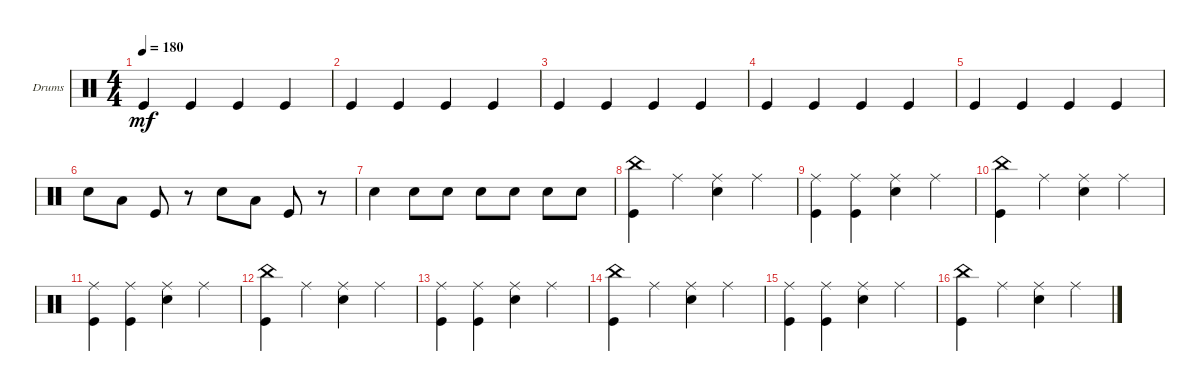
\defaultSystemsLayout 4
\bracketExtendMode groupsimilarinstruments
\firstSystemTrackNameOrientation horizontal
\otherSystemsTrackNameOrientation horizontal
\track ("Drumkit" "Drums") {instrument percussion}
\staff {score}
\articulation defaults
\ts (4 4)
\tempo 180
\clef neutral
\ks c "Kick (hit)".4{dy mf} "Kick (hit)".4 "Kick (hit)".4 "Kick (hit)".4
|
"Kick (hit)".4 "Kick (hit)".4 "Kick (hit)".4 "Kick (hit)".4 |
"Kick (hit)".4 "Kick (hit)".4 "Kick (hit)".4 "Kick (hit)".4 |
"Kick (hit)".4 "Kick (hit)".4 "Kick (hit)".4 "Kick (hit)".4 |
"Kick (hit)".4 "Kick (hit)".4 "Kick (hit)".4 "Kick (hit)".4 |
"Snare (hit) 2".8 "Low Tom (hit)".8 "Kick (hit)".8 r.8 "Snare (hit) 2".8 "Low Tom (hit)".8 "Kick (hit)".8 r.8 |
"Snare (hit) 2".4 "Snare (hit) 2".8 "Snare (hit) 2".8 "Snare (hit) 2".8 "Snare (hit) 2".8 "Snare (hit) 2".8 "Snare (hit) 2".8 |
("Kick (hit)" "China (hit)").4 "Ride (middle)".4 ("Ride (middle)" "Snare (hit) 2").4 "Ride (middle)".4 |
("Ride (middle)" "Kick (hit)").4 ("Ride (middle)" "Kick (hit)").4 ("Ride (middle)" "Snare (hit) 2").4 "Ride (middle)".4 |
("Kick (hit)" "China (hit)").4 "Ride (middle)".4 ("Ride (middle)" "Snare (hit) 2").4 "Ride (middle)".4 |
("Ride (middle)" "Kick (hit)").4 ("Ride (middle)" "Kick (hit)").4 ("Ride (middle)" "Snare (hit) 2").4 "Ride (middle)".4 |
("Kick (hit)" "China (hit)").4 "Ride (middle)".4 ("Ride (middle)" "Snare (hit) 2").4 "Ride (middle)".4 |
("Ride (middle)" "Kick (hit)").4 ("Ride (middle)" "Kick (hit)").4 ("Ride (middle)" "Snare (hit) 2").4 "Ride (middle)".4 |
("Kick (hit)" "China (hit)").4 "Ride (middle)".4 ("Ride (middle)" "Snare (hit) 2").4 "Ride (middle)".4 |
("Ride (middle)" "Kick (hit)").4 ("Ride (middle)" "Kick (hit)").4 ("Ride (middle)" "Snare (hit) 2").4 "Ride (middle)".4 |
("Kick (hit)" "China (hit)").4 "Ride (middle)".4 ("Ride (middle)" "Snare (hit) 2").4 "Ride (middle)".4
